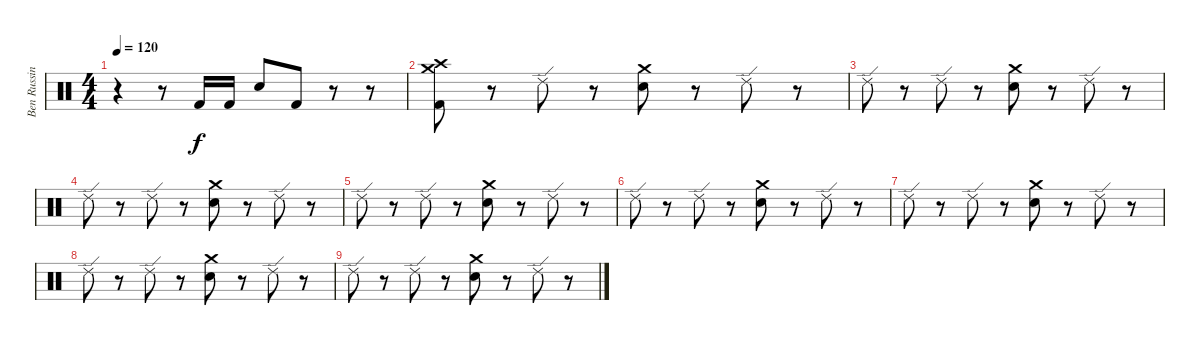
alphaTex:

\track ("Ben Russin" "Ben Russin") {instrument percussion}
\staff {score}
\articulation defaults
\ts (4 4)
\tempo 120
\clef neutral
\ks c
r.4{dy f} r.8 "Kick (hit) 2".16 "Kick (hit) 2".16 "Snare (hit) 2".8 "Kick (hit) 2".8 r.8 r.8 |
("Kick (hit) 2" "Crash high (hit)" "Crash medium (hit)").8 r.8 "Ride (edge) 2".8 r.8 ("Snare (hit) 2" "Crash medium (hit)").8 r.8 "Ride (edge) 2".8 r.8 |
"Ride (edge) 2".8 r.8 "Ride (edge) 2".8 r.8 ("Snare (hit) 2" "Crash medium (hit)").8 r.8 "Ride (edge) 2".8 r.8 |
"Ride (edge) 2".8 r.8 "Ride (edge) 2".8 r.8 ("Snare (hit) 2" "Crash medium (hit)").8 r.8 "Ride (edge) 2".8 r.8 |
"Ride (edge) 2".8 r.8 "Ride (edge) 2".8 r.8 ("Snare (hit) 2" "Crash medium (hit)").8 r.8 "Ride (edge) 2".8 r.8 |
"Ride (edge) 2".8 r.8 "Ride (edge) 2".8 r.8 ("Snare (hit) 2" "Crash medium (hit)").8 r.8 "Ride (edge) 2".8 r.8 |
"Ride (edge) 2".8 r.8 "Ride (edge) 2".8 r.8 ("Snare (hit) 2" "Crash medium (hit)").8 r.8 "Ride (edge) 2".8 r.8 |
"Ride (edge) 2".8 r.8 "Ride (edge) 2".8 r.8 ("Snare (hit) 2" "Crash medium (hit)").8 r.8 "Ride (edge) 2".8 r.8 |
"Ride (edge) 2".8 r.8 "Ride (edge) 2".8 r.8 ("Snare (hit) 2" "Crash medium (hit)").8 r.8 "Ride (edge) 2".8 r.8
